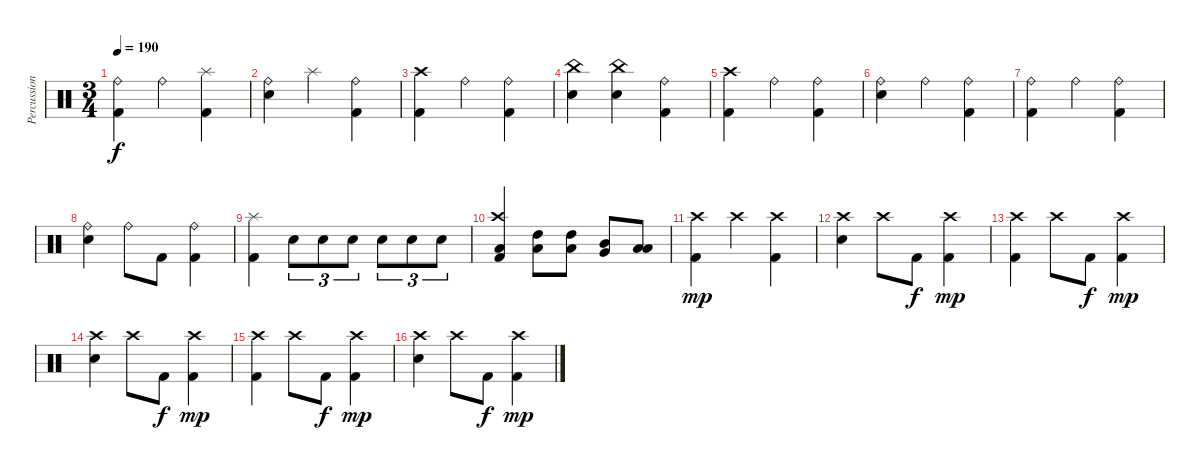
\track ("Percussion" "Percussion") {instrument percussion}
\staff {score}
\articulation defaults
\ts (3 4)
\tempo 190
\clef neutral
\ks c
("Ride (bell)" "Kick (hit) 2").4{dy f} "Ride (bell)".4 ("Splash (hit)" "Kick (hit) 2").4 |
("Ride (bell)" "Electric Snare (hit)").4 "Splash (hit)".4 ("Ride (bell)" "Kick (hit) 2").4 |
("Crash high (hit)" "Kick (hit) 2").4 "Ride (bell)".4 ("Ride (bell)" "Kick (hit) 2").4 |
("China (hit)" "Electric Snare (hit)").4 ("China (hit)" "Electric Snare (hit)").4 ("Ride (bell)" "Kick (hit) 2").4 |
("Crash high (hit)" "Kick (hit) 2").4 "Ride (bell)".4 ("Ride (bell)" "Kick (hit) 2").4 |
("Ride (bell)" "Electric Snare (hit)").4 "Ride (bell)".4 ("Ride (bell)" "Kick (hit) 2").4 |
("Ride (bell)" "Kick (hit) 2").4 "Ride (bell)".4 ("Ride (bell)" "Kick (hit) 2").4 |
("Ride (bell)" "Electric Snare (hit)").4 "Ride (bell)".8 "Kick (hit) 2".8 ("Ride (bell)" "Kick (hit) 2").4 |
("Splash (hit)" "Kick (hit) 2").4 "Electric Snare (hit)".8{tu (3 2)} "Electric Snare (hit)".8{tu (3 2)} "Electric Snare (hit)".8{tu (3 2)} "Electric Snare (hit)".8{tu (3 2)} "Electric Snare (hit)".8{tu (3 2)} "Electric Snare (hit)".8{tu (3 2)} |
("Crash high (hit)" "Low Floor Tom (hit)" "Kick (hit) 2").4 ("High Tom (hit)" "Low Tom (hit)").8 ("High Tom (hit)" "Low Tom (hit)").8 ("Mid Tom (hit)" "Very Low Tom (hit)").8 ("Low Tom (hit)" "Low Floor Tom (hit)").8 |
("Crash high (hit)" "Kick (hit) 2").4{dy mp} "Crash high (hit)".4 ("Crash high (hit)" "Kick (hit) 2").4 |
("Crash high (hit)" "Electric Snare (hit)").4 "Crash high (hit)".8 "Kick (hit) 2".8{dy f} ("Crash high (hit)" "Kick (hit) 2").4{dy mp} |
("Crash high (hit)" "Kick (hit) 2").4 "Crash high (hit)".8 "Kick (hit) 2".8{dy f} ("Crash high (hit)" "Kick (hit) 2").4{dy mp} |
("Crash high (hit)" "Electric Snare (hit)").4 "Crash high (hit)".8 "Kick (hit) 2".8{dy f} ("Crash high (hit)" "Kick (hit) 2").4{dy mp} |
("Crash high (hit)" "Kick (hit) 2").4 "Crash high (hit)".8 "Kick (hit) 2".8{dy f} ("Crash high (hit)" "Kick (hit) 2").4{dy mp} |
("Crash high (hit)" "Electric Snare (hit)").4 "Crash high (hit)".8 "Kick (hit) 2".8{dy f} ("Crash high (hit)" "Kick (hit) 2").4{dy mp}
